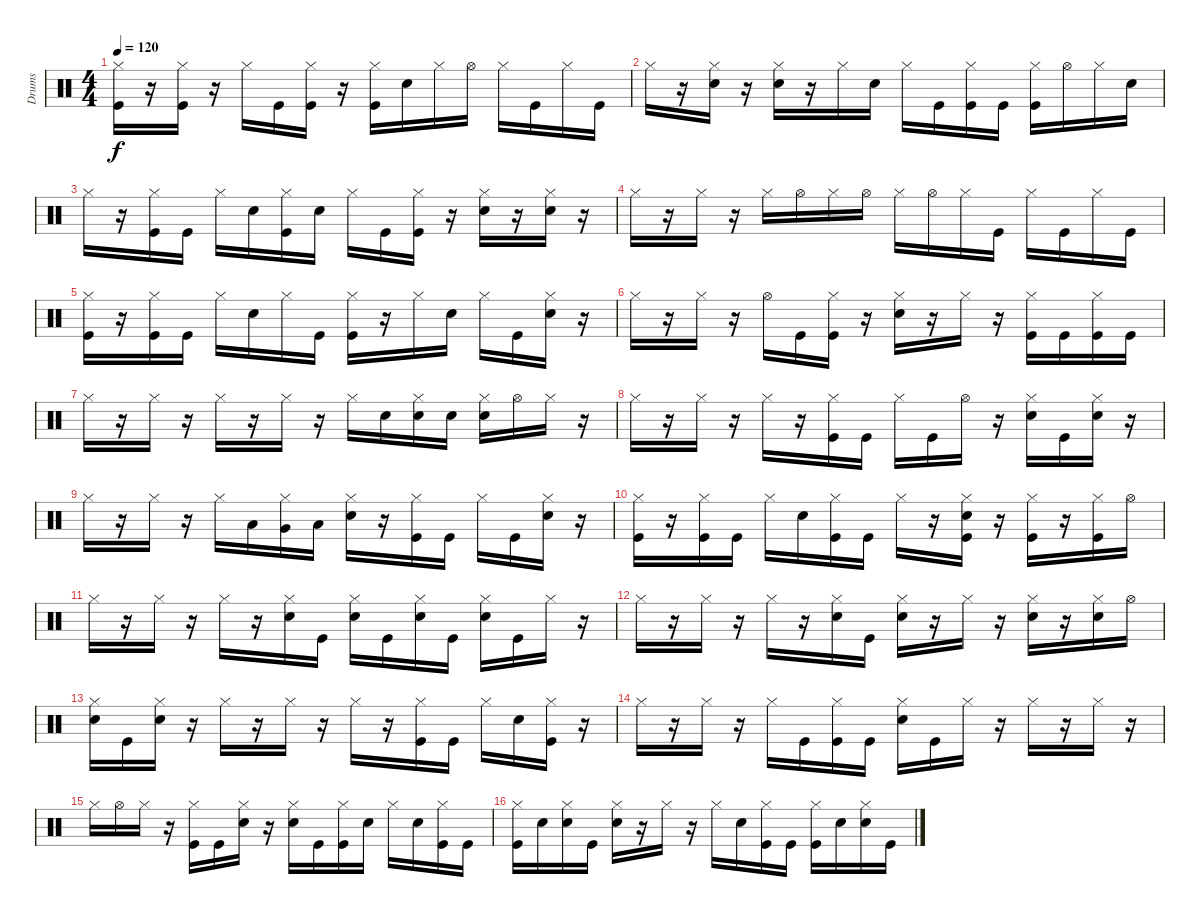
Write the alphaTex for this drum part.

\track ("Drums" "Drums") {instrument percussion}
\staff {score}
\articulation defaults
\ts (4 4)
\tempo 120
\clef neutral
\ks c
("Hi-Hat (closed)" "Kick (hit)").16{dy f} r.16 ("Hi-Hat (closed)" "Kick (hit)").16 r.16 "Hi-Hat (closed)".16 "Kick (hit)".16 ("Hi-Hat (closed)" "Kick (hit)").16 r.16 ("Hi-Hat (closed)" "Kick (hit)").16 "Electric Snare (hit)".16 "Hi-Hat (closed)".16 "Hi-Hat (open)".16 "Hi-Hat (closed)".16 "Kick (hit)".16 "Hi-Hat (closed)".16 "Kick (hit)".16 |
"Hi-Hat (closed)".16 r.16 ("Hi-Hat (closed)" "Electric Snare (hit)").16 r.16 ("Hi-Hat (closed)" "Electric Snare (hit)").16 r.16 "Hi-Hat (closed)".16 "Electric Snare (hit)".16 "Hi-Hat (closed)".16 "Kick (hit)".16 ("Hi-Hat (closed)" "Kick (hit)").16 "Kick (hit)".16 ("Hi-Hat (closed)" "Kick (hit)").16 "Hi-Hat (open)".16 "Hi-Hat (closed)".16 "Electric Snare (hit)".16 |
"Hi-Hat (closed)".16 r.16 ("Hi-Hat (closed)" "Kick (hit)").16 "Kick (hit)".16 "Hi-Hat (closed)".16 "Electric Snare (hit)".16 ("Hi-Hat (closed)" "Kick (hit)").16 "Electric Snare (hit)".16 "Hi-Hat (closed)".16 "Kick (hit)".16 ("Hi-Hat (closed)" "Kick (hit)").16 r.16 ("Hi-Hat (closed)" "Electric Snare (hit)").16 r.16 ("Hi-Hat (closed)" "Electric Snare (hit)").16 r.16 |
"Hi-Hat (closed)".16 r.16 "Hi-Hat (closed)".16 r.16 "Hi-Hat (closed)".16 "Hi-Hat (open)".16 "Hi-Hat (closed)".16 "Hi-Hat (open)".16 "Hi-Hat (closed)".16 "Hi-Hat (open)".16 "Hi-Hat (closed)".16 "Kick (hit)".16 "Hi-Hat (closed)".16 "Kick (hit)".16 "Hi-Hat (closed)".16 "Kick (hit)".16 |
("Hi-Hat (closed)" "Kick (hit)").16 r.16 ("Hi-Hat (closed)" "Kick (hit)").16 "Kick (hit)".16 "Hi-Hat (closed)".16 "Electric Snare (hit)".16 "Hi-Hat (closed)".16 "Kick (hit)".16 ("Hi-Hat (closed)" "Kick (hit)").16 r.16 "Hi-Hat (closed)".16 "Electric Snare (hit)".16 "Hi-Hat (closed)".16 "Kick (hit)".16 ("Hi-Hat (closed)" "Electric Snare (hit)").16 r.16 |
"Hi-Hat (closed)".16 r.16 "Hi-Hat (closed)".16 r.16 "Hi-Hat (open)".16 "Kick (hit)".16 ("Hi-Hat (closed)" "Kick (hit)").16 r.16 ("Hi-Hat (closed)" "Electric Snare (hit)").16 r.16 "Hi-Hat (closed)".16 r.16 ("Hi-Hat (closed)" "Kick (hit)").16 "Kick (hit)".16 ("Hi-Hat (closed)" "Kick (hit)").16 "Kick (hit)".16 |
"Hi-Hat (closed)".16 r.16 "Hi-Hat (closed)".16 r.16 "Hi-Hat (closed)".16 r.16 "Hi-Hat (closed)".16 r.16 "Hi-Hat (closed)".16 "Electric Snare (hit)".16 ("Hi-Hat (closed)" "Electric Snare (hit)").16 "Electric Snare (hit)".16 ("Hi-Hat (closed)" "Electric Snare (hit)").16 "Hi-Hat (open)".16 "Hi-Hat (closed)".16 r.16 |
"Hi-Hat (closed)".16 r.16 "Hi-Hat (closed)".16 r.16 "Hi-Hat (closed)".16 r.16 ("Hi-Hat (closed)" "Kick (hit)").16 "Kick (hit)".16 "Hi-Hat (closed)".16 "Kick (hit)".16 "Hi-Hat (open)".16 r.16 ("Hi-Hat (closed)" "Electric Snare (hit)").16 "Kick (hit)".16 ("Hi-Hat (closed)" "Electric Snare (hit)").16 r.16 |
"Hi-Hat (closed)".16 r.16 "Hi-Hat (closed)".16 r.16 "Hi-Hat (closed)".16 "Low Tom (hit)".16 ("Hi-Hat (closed)" "Very Low Tom (hit)").16 "Low Floor Tom (hit)".16 ("Hi-Hat (closed)" "Electric Snare (hit)").16 r.16 ("Hi-Hat (closed)" "Kick (hit)").16 "Kick (hit)".16 "Hi-Hat (closed)".16 "Kick (hit)".16 ("Hi-Hat (closed)" "Electric Snare (hit)").16 r.16 |
("Hi-Hat (closed)" "Kick (hit)").16 r.16 ("Hi-Hat (closed)" "Kick (hit)").16 "Kick (hit)".16 "Hi-Hat (closed)".16 "Electric Snare (hit)".16 ("Hi-Hat (closed)" "Kick (hit)").16 "Kick (hit)".16 "Hi-Hat (closed)".16 r.16 ("Hi-Hat (closed)" "Electric Snare (hit)" "Kick (hit)").16 r.16 ("Hi-Hat (closed)" "Kick (hit)").16 r.16 ("Hi-Hat (closed)" "Kick (hit)").16 "Hi-Hat (open)".16 |
"Hi-Hat (closed)".16 r.16 "Hi-Hat (closed)".16 r.16 "Hi-Hat (closed)".16 r.16 ("Hi-Hat (closed)" "Electric Snare (hit)").16 "Kick (hit)".16 ("Hi-Hat (closed)" "Electric Snare (hit)").16 "Kick (hit)".16 ("Hi-Hat (closed)" "Electric Snare (hit)").16 "Kick (hit)".16 ("Hi-Hat (closed)" "Electric Snare (hit)").16 "Kick (hit)".16 "Hi-Hat (closed)".16 r.16 |
"Hi-Hat (closed)".16 r.16 "Hi-Hat (closed)".16 r.16 "Hi-Hat (closed)".16 r.16 ("Hi-Hat (closed)" "Electric Snare (hit)").16 "Kick (hit)".16 ("Hi-Hat (closed)" "Electric Snare (hit)").16 r.16 "Hi-Hat (closed)".16 r.16 ("Hi-Hat (closed)" "Electric Snare (hit)").16 r.16 ("Hi-Hat (closed)" "Electric Snare (hit)").16 "Hi-Hat (open)".16 |
("Hi-Hat (closed)" "Electric Snare (hit)").16 "Kick (hit)".16 ("Hi-Hat (closed)" "Electric Snare (hit)").16 r.16 "Hi-Hat (closed)".16 r.16 "Hi-Hat (closed)".16 r.16 "Hi-Hat (closed)".16 r.16 ("Hi-Hat (closed)" "Kick (hit)").16 "Kick (hit)".16 "Hi-Hat (closed)".16 "Electric Snare (hit)".16 ("Hi-Hat (closed)" "Kick (hit)").16 r.16 |
"Hi-Hat (closed)".16 r.16 "Hi-Hat (closed)".16 r.16 "Hi-Hat (closed)".16 "Kick (hit)".16 ("Hi-Hat (closed)" "Kick (hit)").16 "Kick (hit)".16 ("Hi-Hat (closed)" "Electric Snare (hit)").16 "Kick (hit)".16 "Hi-Hat (closed)".16 r.16 "Hi-Hat (closed)".16 r.16 "Hi-Hat (closed)".16 r.16 |
"Hi-Hat (closed)".16 "Hi-Hat (open)".16 "Hi-Hat (closed)".16 r.16 ("Hi-Hat (closed)" "Kick (hit)").16 "Kick (hit)".16 ("Hi-Hat (closed)" "Electric Snare (hit)").16 r.16 ("Hi-Hat (closed)" "Electric Snare (hit)").16 "Kick (hit)".16 ("Hi-Hat (closed)" "Kick (hit)").16 "Electric Snare (hit)".16 "Hi-Hat (closed)".16 "Electric Snare (hit)".16 ("Hi-Hat (closed)" "Kick (hit)").16 "Kick (hit)".16 |
("Hi-Hat (closed)" "Kick (hit)").16 "Electric Snare (hit)".16 ("Hi-Hat (closed)" "Electric Snare (hit)").16 "Kick (hit)".16 ("Hi-Hat (closed)" "Electric Snare (hit)").16 r.16 "Hi-Hat (closed)".16 r.16 "Hi-Hat (closed)".16 "Electric Snare (hit)".16 ("Hi-Hat (closed)" "Kick (hit)").16 "Kick (hit)".16 ("Hi-Hat (closed)" "Kick (hit)").16 "Electric Snare (hit)".16 ("Hi-Hat (closed)" "Electric Snare (hit)").16 "Kick (hit)".16
